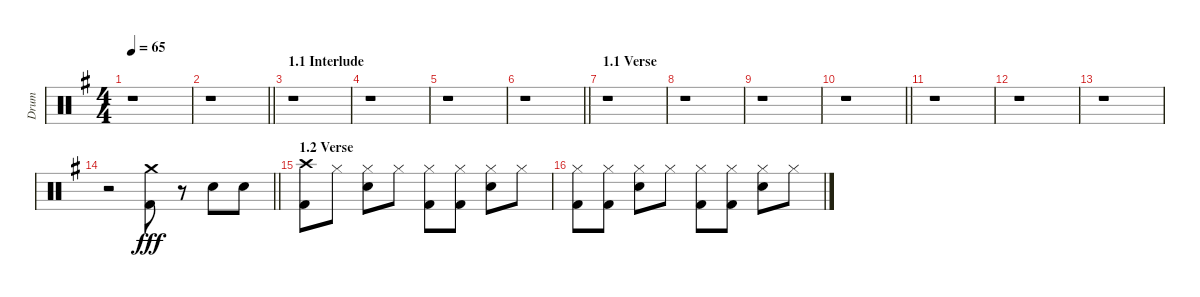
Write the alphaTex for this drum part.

\track ("Drum" "Drum") {instrument percussion}
\staff {score}
\articulation defaults
\ts (4 4)
\tempo 65
\clef neutral
\ks eminor
r.1{dy fff} |
\barLineRight lightlight
r.1 |
\section ("" "1.1 Interlude")
r.1 |
r.1 |
r.1 |
\barLineRight lightlight
r.1 |
\section ("" "1.1 Verse")
r.1 |
r.1 |
r.1 |
\barLineRight lightlight
r.1 |
r.1 |
r.1 |
r.1 |
\barLineRight lightlight
r.2 ("Crash medium (hit)" "Kick (hit) 2").8 r.8 "Electric Snare (hit)".8 "Electric Snare (hit)".8 |
\section ("" "1.2 Verse")
("Crash high (hit)" "Kick (hit) 2").8 "Hi-Hat (closed)".8 ("Electric Snare (hit)" "Hi-Hat (closed)").8 "Hi-Hat (closed)".8 ("Kick (hit) 2" "Hi-Hat (closed)").8 ("Kick (hit) 2" "Hi-Hat (closed)").8 ("Electric Snare (hit)" "Hi-Hat (closed)").8 "Hi-Hat (closed)".8 |
("Hi-Hat (closed)" "Kick (hit) 2").8 ("Kick (hit) 2" "Hi-Hat (closed)").8 ("Electric Snare (hit)" "Hi-Hat (closed)").8 "Hi-Hat (closed)".8 ("Kick (hit) 2" "Hi-Hat (closed)").8 ("Kick (hit) 2" "Hi-Hat (closed)").8 ("Electric Snare (hit)" "Hi-Hat (closed)").8 "Hi-Hat (closed)".8
